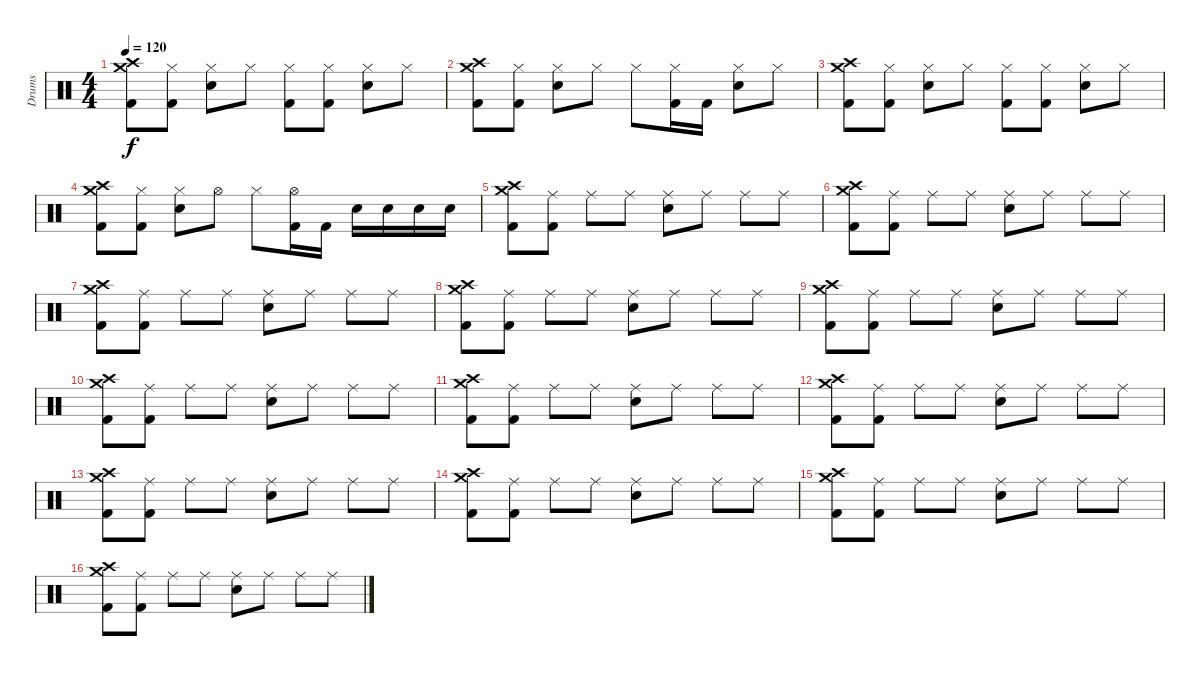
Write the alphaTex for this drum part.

\track ("Drums" "Drums") {instrument percussion}
\staff {score}
\articulation defaults
\ts (4 4)
\tempo 120
\clef neutral
\ks c
("Crash high (hit)" "Crash medium (hit)" "Kick (hit) 2").8{dy f} ("Hi-Hat (closed)" "Kick (hit) 2").8 ("Hi-Hat (closed)" "Snare (hit) 2").8 "Hi-Hat (closed)".8 ("Hi-Hat (closed)" "Kick (hit) 2").8 ("Hi-Hat (closed)" "Kick (hit) 2").8 ("Hi-Hat (closed)" "Snare (hit) 2").8 "Hi-Hat (closed)".8 |
("Crash high (hit)" "Crash medium (hit)" "Kick (hit) 2").8 ("Hi-Hat (closed)" "Kick (hit) 2").8 ("Hi-Hat (closed)" "Snare (hit) 2").8 "Hi-Hat (closed)".8 "Hi-Hat (closed)".8 ("Hi-Hat (closed)" "Kick (hit) 2").16 "Kick (hit) 2".16 ("Hi-Hat (closed)" "Snare (hit) 2").8 "Hi-Hat (closed)".8 |
("Crash high (hit)" "Crash medium (hit)" "Kick (hit) 2").8 ("Hi-Hat (closed)" "Kick (hit) 2").8 ("Hi-Hat (closed)" "Snare (hit) 2").8 "Hi-Hat (closed)".8 ("Hi-Hat (closed)" "Kick (hit) 2").8 ("Hi-Hat (closed)" "Kick (hit) 2").8 ("Hi-Hat (closed)" "Snare (hit) 2").8 "Hi-Hat (closed)".8 |
("Crash high (hit)" "Crash medium (hit)" "Kick (hit) 2").8 ("Hi-Hat (closed)" "Kick (hit) 2").8 ("Hi-Hat (closed)" "Snare (hit) 2").8 "Hi-Hat (open)".8 "Hi-Hat (closed)".8 ("Hi-Hat (open)" "Kick (hit) 2").16 "Kick (hit) 2".16 "Snare (hit) 2".16 "Snare (hit) 2".16 "Snare (hit) 2".16 "Snare (hit) 2".16 |
("Crash high (hit)" "Crash medium (hit)" "Kick (hit) 2").8 ("Ride (middle)" "Kick (hit) 2").8 "Ride (middle)".8 "Ride (middle)".8 ("Ride (middle)" "Snare (hit) 2").8 "Ride (middle)".8 "Ride (middle)".8 "Ride (middle)".8 |
("Crash high (hit)" "Crash medium (hit)" "Kick (hit) 2").8 ("Ride (middle)" "Kick (hit) 2").8 "Ride (middle)".8 "Ride (middle)".8 ("Ride (middle)" "Snare (hit) 2").8 "Ride (middle)".8 "Ride (middle)".8 "Ride (middle)".8 |
("Crash high (hit)" "Crash medium (hit)" "Kick (hit) 2").8 ("Ride (middle)" "Kick (hit) 2").8 "Ride (middle)".8 "Ride (middle)".8 ("Ride (middle)" "Snare (hit) 2").8 "Ride (middle)".8 "Ride (middle)".8 "Ride (middle)".8 |
("Crash high (hit)" "Crash medium (hit)" "Kick (hit) 2").8 ("Ride (middle)" "Kick (hit) 2").8 "Ride (middle)".8 "Ride (middle)".8 ("Ride (middle)" "Snare (hit) 2").8 "Ride (middle)".8 "Ride (middle)".8 "Ride (middle)".8 |
("Crash high (hit)" "Crash medium (hit)" "Kick (hit) 2").8 ("Ride (middle)" "Kick (hit) 2").8 "Ride (middle)".8 "Ride (middle)".8 ("Ride (middle)" "Snare (hit) 2").8 "Ride (middle)".8 "Ride (middle)".8 "Ride (middle)".8 |
("Crash high (hit)" "Crash medium (hit)" "Kick (hit) 2").8 ("Ride (middle)" "Kick (hit) 2").8 "Ride (middle)".8 "Ride (middle)".8 ("Ride (middle)" "Snare (hit) 2").8 "Ride (middle)".8 "Ride (middle)".8 "Ride (middle)".8 |
("Crash high (hit)" "Crash medium (hit)" "Kick (hit) 2").8 ("Ride (middle)" "Kick (hit) 2").8 "Ride (middle)".8 "Ride (middle)".8 ("Ride (middle)" "Snare (hit) 2").8 "Ride (middle)".8 "Ride (middle)".8 "Ride (middle)".8 |
("Crash high (hit)" "Crash medium (hit)" "Kick (hit) 2").8 ("Ride (middle)" "Kick (hit) 2").8 "Ride (middle)".8 "Ride (middle)".8 ("Ride (middle)" "Snare (hit) 2").8 "Ride (middle)".8 "Ride (middle)".8 "Ride (middle)".8 |
("Crash high (hit)" "Crash medium (hit)" "Kick (hit) 2").8 ("Ride (middle)" "Kick (hit) 2").8 "Ride (middle)".8 "Ride (middle)".8 ("Ride (middle)" "Snare (hit) 2").8 "Ride (middle)".8 "Ride (middle)".8 "Ride (middle)".8 |
("Crash high (hit)" "Crash medium (hit)" "Kick (hit) 2").8 ("Ride (middle)" "Kick (hit) 2").8 "Ride (middle)".8 "Ride (middle)".8 ("Ride (middle)" "Snare (hit) 2").8 "Ride (middle)".8 "Ride (middle)".8 "Ride (middle)".8 |
("Crash high (hit)" "Crash medium (hit)" "Kick (hit) 2").8 ("Ride (middle)" "Kick (hit) 2").8 "Ride (middle)".8 "Ride (middle)".8 ("Ride (middle)" "Snare (hit) 2").8 "Ride (middle)".8 "Ride (middle)".8 "Ride (middle)".8 |
("Crash high (hit)" "Crash medium (hit)" "Kick (hit) 2").8 ("Ride (middle)" "Kick (hit) 2").8 "Ride (middle)".8 "Ride (middle)".8 ("Ride (middle)" "Snare (hit) 2").8 "Ride (middle)".8 "Ride (middle)".8 "Ride (middle)".8
